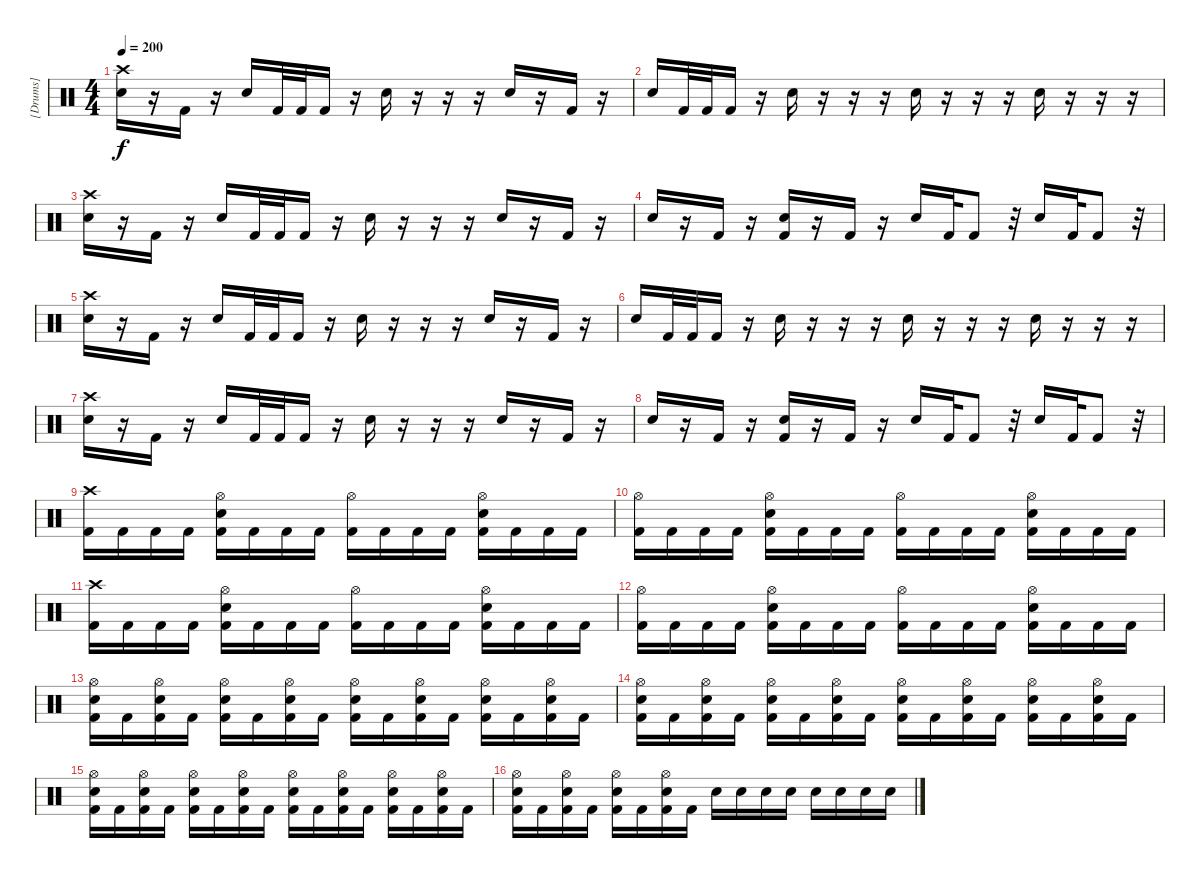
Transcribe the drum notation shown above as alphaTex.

\track ("[Drums]" "[Drums]") {instrument percussion}
\staff {score}
\articulation defaults
\ts (4 4)
\tempo 200
\clef neutral
\ks c
("Crash high (hit)" "Electric Snare (hit)").16{dy f} r.16 "Kick (hit) 2".16 r.16 "Electric Snare (hit)".16 "Kick (hit) 2".32 "Kick (hit) 2".32 "Kick (hit) 2".16 r.16 "Electric Snare (hit)".16 r.16 r.16 r.16 "Electric Snare (hit)".16 r.16 "Kick (hit) 2".16 r.16 |
"Electric Snare (hit)".16 "Kick (hit) 2".32 "Kick (hit) 2".32 "Kick (hit) 2".16 r.16 "Electric Snare (hit)".16 r.16 r.16 r.16 "Electric Snare (hit)".16 r.16 r.16 r.16 "Electric Snare (hit)".16 r.16 r.16 r.16 |
("Crash high (hit)" "Electric Snare (hit)").16 r.16 "Kick (hit) 2".16 r.16 "Electric Snare (hit)".16 "Kick (hit) 2".32 "Kick (hit) 2".32 "Kick (hit) 2".16 r.16 "Electric Snare (hit)".16 r.16 r.16 r.16 "Electric Snare (hit)".16 r.16 "Kick (hit) 2".16 r.16 |
"Electric Snare (hit)".16 r.16 "Kick (hit) 2".16 r.16 ("Electric Snare (hit)" "Kick (hit) 2").16 r.16 "Kick (hit) 2".16 r.16 "Electric Snare (hit)".16 "Kick (hit) 2".32 "Kick (hit) 2".8 r.32 "Electric Snare (hit)".16 "Kick (hit) 2".32 "Kick (hit) 2".8 r.32 |
("Crash high (hit)" "Electric Snare (hit)").16 r.16 "Kick (hit) 2".16 r.16 "Electric Snare (hit)".16 "Kick (hit) 2".32 "Kick (hit) 2".32 "Kick (hit) 2".16 r.16 "Electric Snare (hit)".16 r.16 r.16 r.16 "Electric Snare (hit)".16 r.16 "Kick (hit) 2".16 r.16 |
"Electric Snare (hit)".16 "Kick (hit) 2".32 "Kick (hit) 2".32 "Kick (hit) 2".16 r.16 "Electric Snare (hit)".16 r.16 r.16 r.16 "Electric Snare (hit)".16 r.16 r.16 r.16 "Electric Snare (hit)".16 r.16 r.16 r.16 |
("Crash high (hit)" "Electric Snare (hit)").16 r.16 "Kick (hit) 2".16 r.16 "Electric Snare (hit)".16 "Kick (hit) 2".32 "Kick (hit) 2".32 "Kick (hit) 2".16 r.16 "Electric Snare (hit)".16 r.16 r.16 r.16 "Electric Snare (hit)".16 r.16 "Kick (hit) 2".16 r.16 |
"Electric Snare (hit)".16 r.16 "Kick (hit) 2".16 r.16 ("Electric Snare (hit)" "Kick (hit) 2").16 r.16 "Kick (hit) 2".16 r.16 "Electric Snare (hit)".16 "Kick (hit) 2".32 "Kick (hit) 2".8 r.32 "Electric Snare (hit)".16 "Kick (hit) 2".32 "Kick (hit) 2".8 r.32 |
("Crash high (hit)" "Kick (hit) 2").16 "Kick (hit) 2".16 "Kick (hit) 2".16 "Kick (hit) 2".16 ("Hi-Hat (open)" "Electric Snare (hit)" "Kick (hit) 2").16 "Kick (hit) 2".16 "Kick (hit) 2".16 "Kick (hit) 2".16 ("Hi-Hat (open)" "Kick (hit) 2").16 "Kick (hit) 2".16 "Kick (hit) 2".16 "Kick (hit) 2".16 ("Hi-Hat (open)" "Electric Snare (hit)" "Kick (hit) 2").16 "Kick (hit) 2".16 "Kick (hit) 2".16 "Kick (hit) 2".16 |
("Hi-Hat (open)" "Kick (hit) 2").16 "Kick (hit) 2".16 "Kick (hit) 2".16 "Kick (hit) 2".16 ("Hi-Hat (open)" "Electric Snare (hit)" "Kick (hit) 2").16 "Kick (hit) 2".16 "Kick (hit) 2".16 "Kick (hit) 2".16 ("Hi-Hat (open)" "Kick (hit) 2").16 "Kick (hit) 2".16 "Kick (hit) 2".16 "Kick (hit) 2".16 ("Hi-Hat (open)" "Electric Snare (hit)" "Kick (hit) 2").16 "Kick (hit) 2".16 "Kick (hit) 2".16 "Kick (hit) 2".16 |
("Crash high (hit)" "Kick (hit) 2").16 "Kick (hit) 2".16 "Kick (hit) 2".16 "Kick (hit) 2".16 ("Hi-Hat (open)" "Electric Snare (hit)" "Kick (hit) 2").16 "Kick (hit) 2".16 "Kick (hit) 2".16 "Kick (hit) 2".16 ("Hi-Hat (open)" "Kick (hit) 2").16 "Kick (hit) 2".16 "Kick (hit) 2".16 "Kick (hit) 2".16 ("Hi-Hat (open)" "Electric Snare (hit)" "Kick (hit) 2").16 "Kick (hit) 2".16 "Kick (hit) 2".16 "Kick (hit) 2".16 |
("Hi-Hat (open)" "Kick (hit) 2").16 "Kick (hit) 2".16 "Kick (hit) 2".16 "Kick (hit) 2".16 ("Hi-Hat (open)" "Electric Snare (hit)" "Kick (hit) 2").16 "Kick (hit) 2".16 "Kick (hit) 2".16 "Kick (hit) 2".16 ("Hi-Hat (open)" "Kick (hit) 2").16 "Kick (hit) 2".16 "Kick (hit) 2".16 "Kick (hit) 2".16 ("Hi-Hat (open)" "Electric Snare (hit)" "Kick (hit) 2").16 "Kick (hit) 2".16 "Kick (hit) 2".16 "Kick (hit) 2".16 |
("Hi-Hat (open)" "Electric Snare (hit)" "Kick (hit) 2").16 "Kick (hit) 2".16 ("Hi-Hat (open)" "Electric Snare (hit)" "Kick (hit) 2").16 "Kick (hit) 2".16 ("Hi-Hat (open)" "Electric Snare (hit)" "Kick (hit) 2").16 "Kick (hit) 2".16 ("Hi-Hat (open)" "Electric Snare (hit)" "Kick (hit) 2").16 "Kick (hit) 2".16 ("Hi-Hat (open)" "Electric Snare (hit)" "Kick (hit) 2").16 "Kick (hit) 2".16 ("Hi-Hat (open)" "Electric Snare (hit)" "Kick (hit) 2").16 "Kick (hit) 2".16 ("Hi-Hat (open)" "Electric Snare (hit)" "Kick (hit) 2").16 "Kick (hit) 2".16 ("Hi-Hat (open)" "Electric Snare (hit)" "Kick (hit) 2").16 "Kick (hit) 2".16 |
("Hi-Hat (open)" "Electric Snare (hit)" "Kick (hit) 2").16 "Kick (hit) 2".16 ("Hi-Hat (open)" "Electric Snare (hit)" "Kick (hit) 2").16 "Kick (hit) 2".16 ("Hi-Hat (open)" "Electric Snare (hit)" "Kick (hit) 2").16 "Kick (hit) 2".16 ("Hi-Hat (open)" "Electric Snare (hit)" "Kick (hit) 2").16 "Kick (hit) 2".16 ("Hi-Hat (open)" "Electric Snare (hit)" "Kick (hit) 2").16 "Kick (hit) 2".16 ("Hi-Hat (open)" "Electric Snare (hit)" "Kick (hit) 2").16 "Kick (hit) 2".16 ("Hi-Hat (open)" "Electric Snare (hit)" "Kick (hit) 2").16 "Kick (hit) 2".16 ("Hi-Hat (open)" "Electric Snare (hit)" "Kick (hit) 2").16 "Kick (hit) 2".16 |
("Hi-Hat (open)" "Electric Snare (hit)" "Kick (hit) 2").16 "Kick (hit) 2".16 ("Hi-Hat (open)" "Electric Snare (hit)" "Kick (hit) 2").16 "Kick (hit) 2".16 ("Hi-Hat (open)" "Electric Snare (hit)" "Kick (hit) 2").16 "Kick (hit) 2".16 ("Hi-Hat (open)" "Electric Snare (hit)" "Kick (hit) 2").16 "Kick (hit) 2".16 ("Hi-Hat (open)" "Electric Snare (hit)" "Kick (hit) 2").16 "Kick (hit) 2".16 ("Hi-Hat (open)" "Electric Snare (hit)" "Kick (hit) 2").16 "Kick (hit) 2".16 ("Hi-Hat (open)" "Electric Snare (hit)" "Kick (hit) 2").16 "Kick (hit) 2".16 ("Hi-Hat (open)" "Electric Snare (hit)" "Kick (hit) 2").16 "Kick (hit) 2".16 |
("Hi-Hat (open)" "Electric Snare (hit)" "Kick (hit) 2").16 "Kick (hit) 2".16 ("Hi-Hat (open)" "Electric Snare (hit)" "Kick (hit) 2").16 "Kick (hit) 2".16 ("Hi-Hat (open)" "Electric Snare (hit)" "Kick (hit) 2").16 "Kick (hit) 2".16 ("Hi-Hat (open)" "Electric Snare (hit)" "Kick (hit) 2").16 "Kick (hit) 2".16 "Electric Snare (hit)".16 "Electric Snare (hit)".16 "Electric Snare (hit)".16 "Electric Snare (hit)".16 "Electric Snare (hit)".16 "Electric Snare (hit)".16 "Electric Snare (hit)".16 "Electric Snare (hit)".16
